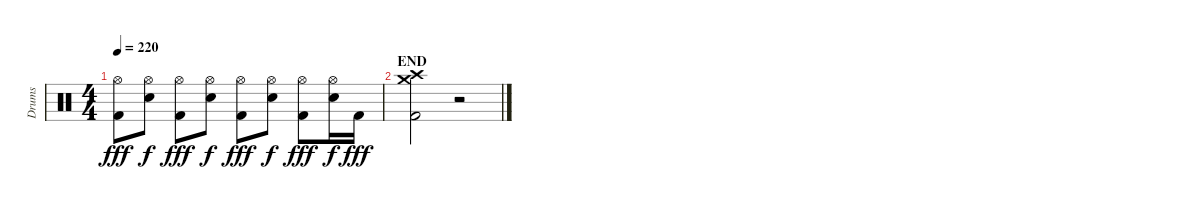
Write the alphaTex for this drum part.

\track ("Drums" "Drums") {instrument percussion}
\staff {score}
\articulation defaults
\ts (4 4)
\tempo 220
\clef neutral
\ks c
("Hi-Hat (open)" "Kick (hit) 2").8{dy fff} ("Hi-Hat (open)" "Electric Snare (hit)").8{dy f} ("Hi-Hat (open)" "Kick (hit) 2").8{dy fff} ("Hi-Hat (open)" "Electric Snare (hit)").8{dy f} ("Hi-Hat (open)" "Kick (hit) 2").8{dy fff} ("Hi-Hat (open)" "Electric Snare (hit)").8{dy f} ("Hi-Hat (open)" "Kick (hit) 2").8{dy fff} ("Hi-Hat (open)" "Electric Snare (hit)").16{dy f} "Kick (hit) 2".16{dy fff} |
\section ("" "END")
("Crash medium (hit)" "Crash high (hit)" "Kick (hit) 2").2 r.2
